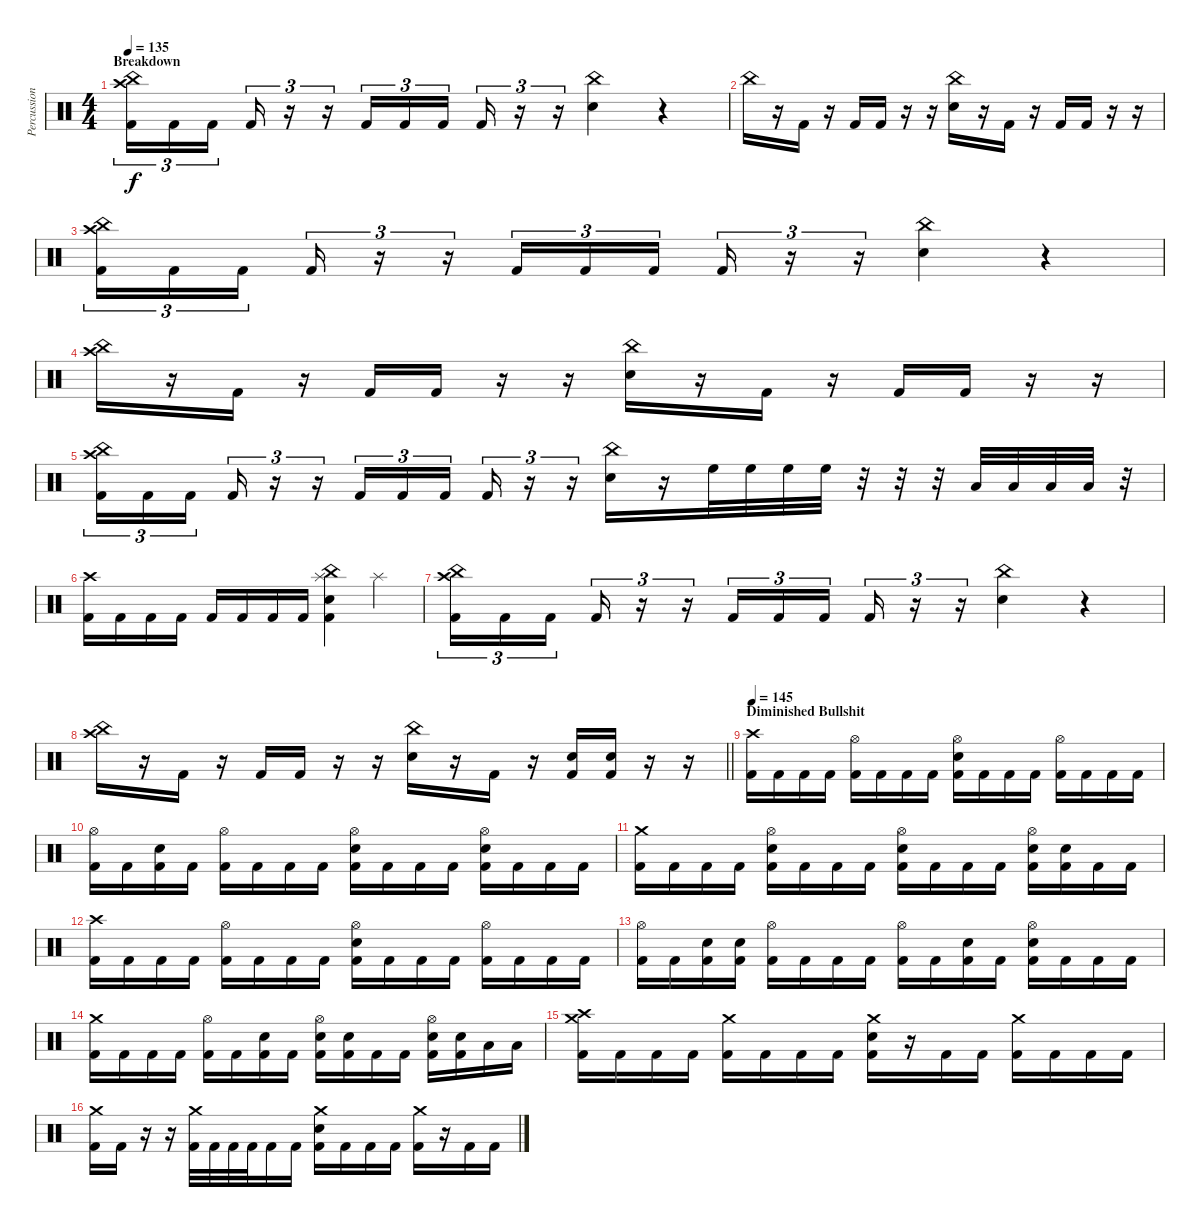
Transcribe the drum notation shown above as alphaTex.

\track ("Percussion" "Percussion") {instrument percussion}
\staff {score}
\articulation defaults
\ts (4 4)
\section ("" "Breakdown")
\tempo 135
\clef neutral
\ks c
("Crash high (hit)" "China (hit)" "Kick (hit) 2").16{tu (3 2) dy f} "Kick (hit) 2".16{tu (3 2)} "Kick (hit) 2".16{tu (3 2) beam splitsecondary} "Kick (hit) 2".16{tu (3 2)} r.16{tu (3 2)} r.16{tu (3 2)} "Kick (hit) 2".16{tu (3 2)} "Kick (hit) 2".16{tu (3 2)} "Kick (hit) 2".16{tu (3 2) beam splitsecondary} "Kick (hit) 2".16{tu (3 2)} r.16{tu (3 2)} r.16{tu (3 2)} ("China (hit)" "Electric Snare (hit)").4 r.4 |
"China (hit)".16 r.16 "Kick (hit) 2".16 r.16 "Kick (hit) 2".16 "Kick (hit) 2".16 r.16 r.16 ("China (hit)" "Electric Snare (hit)").16 r.16 "Kick (hit) 2".16 r.16 "Kick (hit) 2".16 "Kick (hit) 2".16 r.16 r.16 |
("Crash high (hit)" "China (hit)" "Kick (hit) 2").16{tu (3 2)} "Kick (hit) 2".16{tu (3 2)} "Kick (hit) 2".16{tu (3 2) beam splitsecondary} "Kick (hit) 2".16{tu (3 2)} r.16{tu (3 2)} r.16{tu (3 2)} "Kick (hit) 2".16{tu (3 2)} "Kick (hit) 2".16{tu (3 2)} "Kick (hit) 2".16{tu (3 2) beam splitsecondary} "Kick (hit) 2".16{tu (3 2)} r.16{tu (3 2)} r.16{tu (3 2)} ("China (hit)" "Electric Snare (hit)").4 r.4 |
("Crash high (hit)" "China (hit)").16 r.16 "Kick (hit) 2".16 r.16 "Kick (hit) 2".16 "Kick (hit) 2".16 r.16 r.16 ("China (hit)" "Electric Snare (hit)").16 r.16 "Kick (hit) 2".16 r.16 "Kick (hit) 2".16 "Kick (hit) 2".16 r.16 r.16 |
("Crash high (hit)" "China (hit)" "Kick (hit) 2").16{tu (3 2)} "Kick (hit) 2".16{tu (3 2)} "Kick (hit) 2".16{tu (3 2) beam splitsecondary} "Kick (hit) 2".16{tu (3 2)} r.16{tu (3 2)} r.16{tu (3 2)} "Kick (hit) 2".16{tu (3 2)} "Kick (hit) 2".16{tu (3 2)} "Kick (hit) 2".16{tu (3 2) beam splitsecondary} "Kick (hit) 2".16{tu (3 2)} r.16{tu (3 2)} r.16{tu (3 2)} ("China (hit)" "Electric Snare (hit)").16 r.16 "High Floor Tom (hit)".32 "High Floor Tom (hit)".32 "High Floor Tom (hit)".32 "High Floor Tom (hit)".32 r.32 r.32 r.32 "Low Tom (hit)".32 "Low Tom (hit)".32 "Low Tom (hit)".32 "Low Tom (hit)".32 r.32 |
("Crash high (hit)" "Kick (hit) 2").16 "Kick (hit) 2".16 "Kick (hit) 2".16 "Kick (hit) 2".16 "Kick (hit) 2".16 "Kick (hit) 2".16 "Kick (hit) 2".16 "Kick (hit) 2".16 ("China (hit)" "Splash (hit)" "Electric Snare (hit)" "Kick (hit) 2").4 "Splash (hit)".4 |
("Crash high (hit)" "China (hit)" "Kick (hit) 2").16{tu (3 2)} "Kick (hit) 2".16{tu (3 2)} "Kick (hit) 2".16{tu (3 2) beam splitsecondary} "Kick (hit) 2".16{tu (3 2)} r.16{tu (3 2)} r.16{tu (3 2)} "Kick (hit) 2".16{tu (3 2)} "Kick (hit) 2".16{tu (3 2)} "Kick (hit) 2".16{tu (3 2) beam splitsecondary} "Kick (hit) 2".16{tu (3 2)} r.16{tu (3 2)} r.16{tu (3 2)} ("China (hit)" "Electric Snare (hit)").4 r.4 |
\barLineRight lightlight
("Crash high (hit)" "China (hit)").16 r.16 "Kick (hit) 2".16 r.16 "Kick (hit) 2".16 "Kick (hit) 2".16 r.16 r.16 ("China (hit)" "Electric Snare (hit)").16 r.16 "Kick (hit) 2".16 r.16 ("Electric Snare (hit)" "Kick (hit) 2").16 ("Electric Snare (hit)" "Kick (hit) 2").16 r.16 r.16 |
\section ("" "Diminished Bullshit")
\tempo 145
("Crash high (hit)" "Kick (hit) 2").16 "Kick (hit) 2".16 "Kick (hit) 2".16 "Kick (hit) 2".16 ("Hi-Hat (open)" "Kick (hit) 2").16 "Kick (hit) 2".16 "Kick (hit) 2".16 "Kick (hit) 2".16 ("Hi-Hat (open)" "Electric Snare (hit)" "Kick (hit) 2").16 "Kick (hit) 2".16 "Kick (hit) 2".16 "Kick (hit) 2".16 ("Hi-Hat (open)" "Kick (hit) 2").16 "Kick (hit) 2".16 "Kick (hit) 2".16 "Kick (hit) 2".16 |
("Hi-Hat (open)" "Kick (hit) 2").16 "Kick (hit) 2".16 ("Electric Snare (hit)" "Kick (hit) 2").16 "Kick (hit) 2".16 ("Hi-Hat (open)" "Kick (hit) 2").16 "Kick (hit) 2".16 "Kick (hit) 2".16 "Kick (hit) 2".16 ("Hi-Hat (open)" "Electric Snare (hit)" "Kick (hit) 2").16 "Kick (hit) 2".16 "Kick (hit) 2".16 "Kick (hit) 2".16 ("Hi-Hat (open)" "Electric Snare (hit)" "Kick (hit) 2").16 "Kick (hit) 2".16 "Kick (hit) 2".16 "Kick (hit) 2".16 |
("Crash medium (hit)" "Kick (hit) 2").16 "Kick (hit) 2".16 "Kick (hit) 2".16 "Kick (hit) 2".16 ("Hi-Hat (open)" "Electric Snare (hit)" "Kick (hit) 2").16 "Kick (hit) 2".16 "Kick (hit) 2".16 "Kick (hit) 2".16 ("Hi-Hat (open)" "Electric Snare (hit)" "Kick (hit) 2").16 "Kick (hit) 2".16 "Kick (hit) 2".16 "Kick (hit) 2".16 ("Hi-Hat (open)" "Electric Snare (hit)" "Kick (hit) 2").16 ("Electric Snare (hit)" "Kick (hit) 2").16 "Kick (hit) 2".16 "Kick (hit) 2".16 |
("Crash high (hit)" "Kick (hit) 2").16 "Kick (hit) 2".16 "Kick (hit) 2".16 "Kick (hit) 2".16 ("Hi-Hat (open)" "Kick (hit) 2").16 "Kick (hit) 2".16 "Kick (hit) 2".16 "Kick (hit) 2".16 ("Hi-Hat (open)" "Electric Snare (hit)" "Kick (hit) 2").16 "Kick (hit) 2".16 "Kick (hit) 2".16 "Kick (hit) 2".16 ("Hi-Hat (open)" "Kick (hit) 2").16 "Kick (hit) 2".16 "Kick (hit) 2".16 "Kick (hit) 2".16 |
("Hi-Hat (open)" "Kick (hit) 2").16 "Kick (hit) 2".16 ("Electric Snare (hit)" "Kick (hit) 2").16 ("Electric Snare (hit)" "Kick (hit) 2").16 ("Hi-Hat (open)" "Kick (hit) 2").16 "Kick (hit) 2".16 "Kick (hit) 2".16 "Kick (hit) 2".16 ("Hi-Hat (open)" "Kick (hit) 2").16 "Kick (hit) 2".16 ("Electric Snare (hit)" "Kick (hit) 2").16 "Kick (hit) 2".16 ("Hi-Hat (open)" "Electric Snare (hit)" "Kick (hit) 2").16 "Kick (hit) 2".16 "Kick (hit) 2".16 "Kick (hit) 2".16 |
("Crash medium (hit)" "Kick (hit) 2").16 "Kick (hit) 2".16 "Kick (hit) 2".16 "Kick (hit) 2".16 ("Hi-Hat (open)" "Kick (hit) 2").16 "Kick (hit) 2".16 ("Electric Snare (hit)" "Kick (hit) 2").16 "Kick (hit) 2".16 ("Hi-Hat (open)" "Electric Snare (hit)" "Kick (hit) 2").16 ("Electric Snare (hit)" "Kick (hit) 2").16 "Kick (hit) 2".16 "Kick (hit) 2".16 ("Hi-Hat (open)" "Electric Snare (hit)" "Kick (hit) 2").16 ("Electric Snare (hit)" "Kick (hit) 2").16 "Low Tom (hit)".16 "Low Tom (hit)".16 |
("Crash high (hit)" "Crash medium (hit)" "Kick (hit) 2").16 "Kick (hit) 2".16 "Kick (hit) 2".16 "Kick (hit) 2".16 ("Crash medium (hit)" "Kick (hit) 2").16 "Kick (hit) 2".16 "Kick (hit) 2".16 "Kick (hit) 2".16 ("Crash medium (hit)" "Electric Snare (hit)" "Kick (hit) 2").16 r.16 "Kick (hit) 2".16 "Kick (hit) 2".16 ("Crash medium (hit)" "Kick (hit) 2").16 "Kick (hit) 2".16 "Kick (hit) 2".16 "Kick (hit) 2".16 |
("Crash medium (hit)" "Kick (hit) 2").16 "Kick (hit) 2".16 r.16 r.16 ("Crash medium (hit)" "Kick (hit) 2").32 "Kick (hit) 2".32 "Kick (hit) 2".32 "Kick (hit) 2".32 "Kick (hit) 2".16 "Kick (hit) 2".16 ("Crash medium (hit)" "Electric Snare (hit)" "Kick (hit) 2").16 "Kick (hit) 2".16 "Kick (hit) 2".16 "Kick (hit) 2".16 ("Crash medium (hit)" "Kick (hit) 2").16 r.16 "Kick (hit) 2".16 "Kick (hit) 2".16
